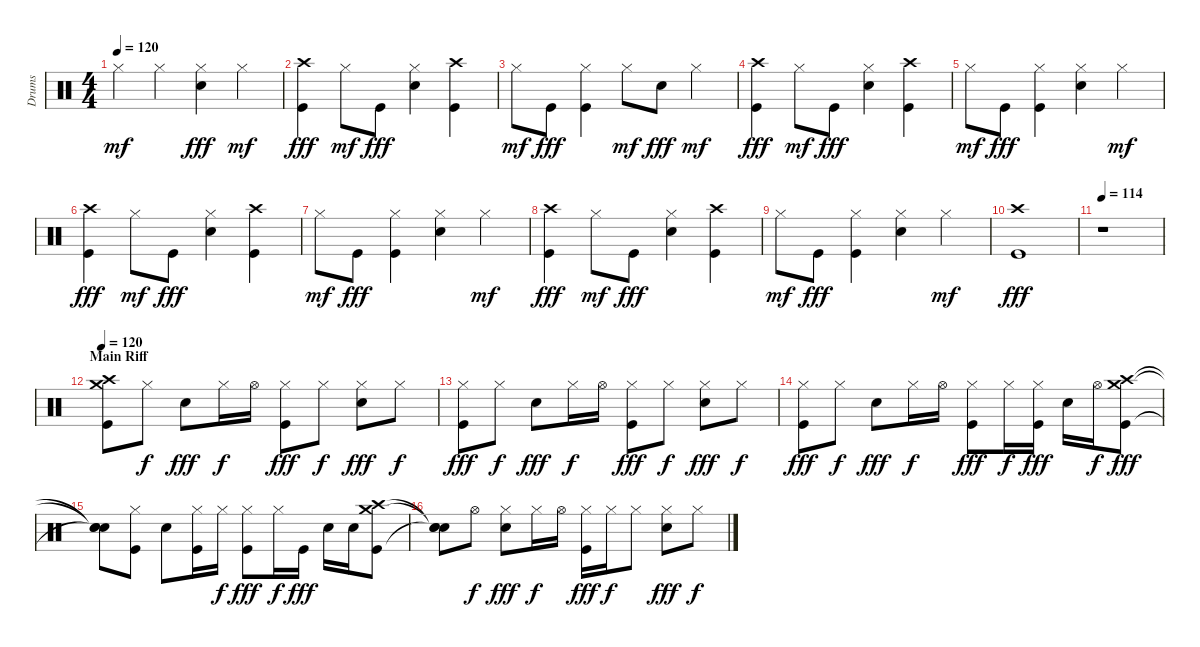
\track ("Drums" "Drums") {instrument percussion}
\staff {score}
\articulation defaults
\ts (4 4)
\tempo 120
\clef neutral
\ks c "Hi-Hat (closed)".4{dy mf} "Hi-Hat (closed)".4
("Hi-Hat (closed)" "Snare (hit) 2").4{dy fff} "Hi-Hat (closed)".4{dy mf} |
("Crash high (hit)" "Kick (hit)").4{dy fff} "Hi-Hat (closed)".8{dy mf} "Kick (hit)".8{dy fff} ("Hi-Hat (closed)" "Snare (hit) 2").4 ("Crash high (hit)" "Kick (hit)").4 |
"Hi-Hat (closed)".8{dy mf} "Kick (hit)".8{dy fff} ("Hi-Hat (closed)" "Kick (hit)").4 "Hi-Hat (closed)".8{dy mf} "Snare (hit) 2".8{dy fff} "Hi-Hat (closed)".4{dy mf} |
("Crash high (hit)" "Kick (hit)").4{dy fff} "Hi-Hat (closed)".8{dy mf} "Kick (hit)".8{dy fff} ("Hi-Hat (closed)" "Snare (hit) 2").4 ("Crash high (hit)" "Kick (hit)").4 |
"Hi-Hat (closed)".8{dy mf} "Kick (hit)".8{dy fff} ("Hi-Hat (closed)" "Kick (hit)").4 ("Hi-Hat (closed)" "Snare (hit) 2").4 "Hi-Hat (closed)".4{dy mf} |
("Crash high (hit)" "Kick (hit)").4{dy fff} "Hi-Hat (closed)".8{dy mf} "Kick (hit)".8{dy fff} ("Hi-Hat (closed)" "Snare (hit) 2").4 ("Crash high (hit)" "Kick (hit)").4 |
"Hi-Hat (closed)".8{dy mf} "Kick (hit)".8{dy fff} ("Hi-Hat (closed)" "Kick (hit)").4 ("Hi-Hat (closed)" "Snare (hit) 2").4 "Hi-Hat (closed)".4{dy mf} |
("Crash high (hit)" "Kick (hit)").4{dy fff} "Hi-Hat (closed)".8{dy mf} "Kick (hit)".8{dy fff} ("Hi-Hat (closed)" "Snare (hit) 2").4 ("Crash high (hit)" "Kick (hit)").4 |
"Hi-Hat (closed)".8{dy mf} "Kick (hit)".8{dy fff} ("Hi-Hat (closed)" "Kick (hit)").4 ("Hi-Hat (closed)" "Snare (hit) 2").4 "Hi-Hat (closed)".4{dy mf} |
("Crash high (hit)" "Kick (hit)").1{dy fff} |
\tempo 114
r.1 |
\section ("" "Main Riff")
\tempo 120
("Crash high (hit)" "Crash medium (hit)" "Kick (hit)").8{volume 15} "Hi-Hat (closed)".8{dy f} "Snare (hit) 2".8{dy fff} "Hi-Hat (closed)".16{dy f} "Hi-Hat (open)".16 ("Hi-Hat (closed)" "Kick (hit)").8{dy fff} "Hi-Hat (closed)".8{dy f} ("Hi-Hat (closed)" "Snare (hit) 2").8{dy fff} "Hi-Hat (closed)".8{dy f} |
("Hi-Hat (closed)" "Kick (hit)").8{dy fff} "Hi-Hat (closed)".8{dy f} "Snare (hit) 2".8{dy fff} "Hi-Hat (closed)".16{dy f} "Hi-Hat (open)".16 ("Hi-Hat (closed)" "Kick (hit)").8{dy fff} "Hi-Hat (closed)".8{dy f} ("Hi-Hat (closed)" "Snare (hit) 2").8{dy fff} "Hi-Hat (closed)".8{dy f} |
("Hi-Hat (closed)" "Kick (hit)").8{dy fff} "Hi-Hat (closed)".8{dy f} "Snare (hit) 2".8{dy fff} "Hi-Hat (closed)".16{dy f} "Hi-Hat (open)".16 ("Hi-Hat (closed)" "Kick (hit)").8{dy fff} "Hi-Hat (closed)".16{dy f} ("Hi-Hat (closed)" "Kick (hit)").16{dy fff} "Snare (hit) 2".16 "Hi-Hat (open)".16{dy f} ("Crash high (hit)" "Crash medium (hit)" "Kick (hit)").8{dy fff} |
("Snare (hit)"{t} "Snare (hit)"{t} "Snare (hit)"{t}).8 ("Hi-Hat (closed)" "Kick (hit)").8 "Snare (hit) 2".8 ("Hi-Hat (closed)" "Kick (hit)").16 "Hi-Hat (closed)".16{dy f} ("Hi-Hat (closed)" "Kick (hit)").8{dy fff} "Hi-Hat (closed)".16{dy f} "Kick (hit)".16{dy fff} "Snare (hit) 2".16 "Snare (hit) 2".16 ("Crash high (hit)" "Crash medium (hit)" "Kick (hit)").8 |
("Snare (hit)"{t} "Snare (hit)"{t} "Snare (hit)"{t}).8 "Hi-Hat (open)".8{dy f} ("Hi-Hat (closed)" "Snare (hit) 2").8{dy fff} "Hi-Hat (closed)".16{dy f} "Hi-Hat (open)".16 ("Hi-Hat (closed)" "Kick (hit)").16{dy fff} "Hi-Hat (closed)".16{dy f} "Hi-Hat (closed)".8 ("Hi-Hat (closed)" "Snare (hit) 2").8{dy fff} "Hi-Hat (closed)".8{dy f}
